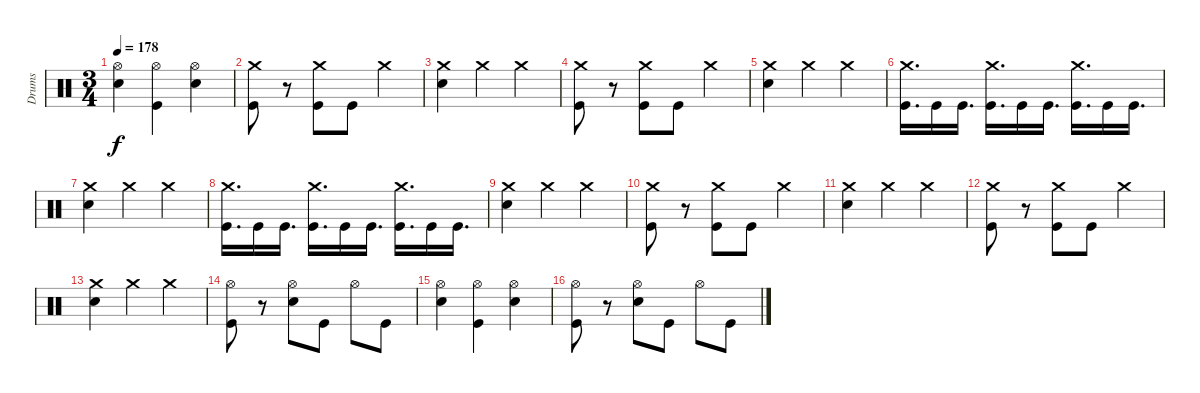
\track ("Drums" "Drums") {instrument percussion}
\staff {score}
\articulation defaults
\ts (3 4)
\tempo 178
\clef neutral
\ks c
("Hi-Hat (open)" "Snare (hit) 2").4{dy f} ("Hi-Hat (open)" "Kick (hit)").4 ("Hi-Hat (open)" "Snare (hit) 2").4 |
("Crash medium (hit)" "Kick (hit)").8 r.8 ("Crash medium (hit)" "Kick (hit)").8 "Kick (hit)".8 "Crash medium (hit)".4 |
("Crash medium (hit)" "Snare (hit) 2").4 "Crash medium (hit)".4 "Crash medium (hit)".4 |
("Crash medium (hit)" "Kick (hit)").8 r.8 ("Crash medium (hit)" "Kick (hit)").8 "Kick (hit)".8 "Crash medium (hit)".4 |
("Crash medium (hit)" "Snare (hit) 2").4 "Crash medium (hit)".4 "Crash medium (hit)".4 |
("Kick (hit)" "Crash medium (hit)").16{d} "Kick (hit)".16 "Kick (hit)".16{d} ("Kick (hit)" "Crash medium (hit)").16{d} "Kick (hit)".16 "Kick (hit)".16{d} ("Kick (hit)" "Crash medium (hit)").16{d} "Kick (hit)".16 "Kick (hit)".16{d} |
("Snare (hit) 2" "Crash medium (hit)").4 "Crash medium (hit)".4 "Crash medium (hit)".4 |
("Kick (hit)" "Crash medium (hit)").16{d} "Kick (hit)".16 "Kick (hit)".16{d} ("Kick (hit)" "Crash medium (hit)").16{d} "Kick (hit)".16 "Kick (hit)".16{d} ("Kick (hit)" "Crash medium (hit)").16{d} "Kick (hit)".16 "Kick (hit)".16{d} |
("Snare (hit) 2" "Crash medium (hit)").4 "Crash medium (hit)".4 "Crash medium (hit)".4 |
("Crash medium (hit)" "Kick (hit)").8 r.8 ("Crash medium (hit)" "Kick (hit)").8 "Kick (hit)".8 "Crash medium (hit)".4 |
("Crash medium (hit)" "Snare (hit) 2").4 "Crash medium (hit)".4 "Crash medium (hit)".4 |
("Crash medium (hit)" "Kick (hit)").8 r.8 ("Crash medium (hit)" "Kick (hit)").8 "Kick (hit)".8 "Crash medium (hit)".4 |
("Crash medium (hit)" "Snare (hit) 2").4 "Crash medium (hit)".4 "Crash medium (hit)".4 |
("Hi-Hat (open)" "Kick (hit)").8 r.8 ("Hi-Hat (open)" "Snare (hit) 2").8 "Kick (hit)".8 "Hi-Hat (open)".8 "Kick (hit)".8 |
("Hi-Hat (open)" "Snare (hit) 2").4 ("Hi-Hat (open)" "Kick (hit)").4 ("Hi-Hat (open)" "Snare (hit) 2").4 |
("Hi-Hat (open)" "Kick (hit)").8 r.8 ("Hi-Hat (open)" "Snare (hit) 2").8 "Kick (hit)".8 "Hi-Hat (open)".8 "Kick (hit)".8
